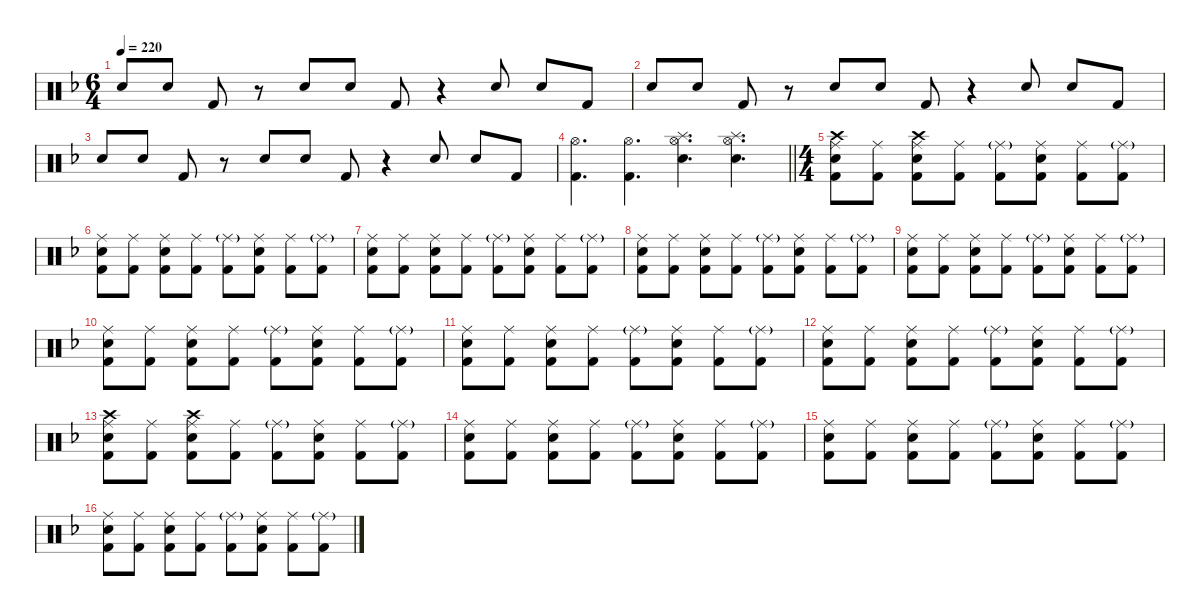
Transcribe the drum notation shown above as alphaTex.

\hideDynamics
\bracketExtendMode nobrackets
\singleTrackTrackNamePolicy hidden
\multiTrackTrackNamePolicy hidden
\firstSystemTrackNameMode fullname
\firstSystemTrackNameOrientation horizontal
\otherSystemsTrackNameOrientation horizontal
\track ("Drumkit" "Drums") {instrument percussion}
\staff {score}
\articulation defaults
\ts (6 4)
\tempo 220
\clef neutral
\ks dminor "Snare (hit) 2"{acc forcenatural}.8{dy ff beam Up} "Snare (hit) 2"{acc forcenatural}.8{beam Up} "Kick (hit) 2"{acc forcenatural}.8{beam Up}
r.8{beam Up} "Snare (hit) 2"{acc forcenatural}.8{beam Up} "Snare (hit) 2"{acc forcenatural}.8{beam Up} "Kick (hit) 2"{acc forcenatural}.8{beam Up} r.4{beam Up} "Snare (hit) 2"{acc forcenatural}.8{beam Up} "Snare (hit) 2"{acc forcenatural}.8{beam Up} "Kick (hit) 2"{acc forcenatural}.8{beam Up} |
"Snare (hit) 2"{acc forcenatural}.8{beam Up} "Snare (hit) 2"{acc forcenatural}.8{beam Up} "Kick (hit) 2"{acc forcenatural}.8{beam Up} r.8{beam Up} "Snare (hit) 2"{acc forcenatural}.8{beam Up} "Snare (hit) 2"{acc forcenatural}.8{beam Up} "Kick (hit) 2"{acc forcenatural}.8{beam Up} r.4{beam Up} "Snare (hit) 2"{acc forcenatural}.8{beam Up} "Snare (hit) 2"{acc forcenatural}.8{beam Up} "Kick (hit) 2"{acc forcenatural}.8{beam Up} |
"Snare (hit) 2"{acc forcenatural}.8{beam Up} "Snare (hit) 2"{acc forcenatural}.8{beam Up} "Kick (hit) 2"{acc forcenatural}.8{beam Up} r.8{beam Up} "Snare (hit) 2"{acc forcenatural}.8{beam Up} "Snare (hit) 2"{acc forcenatural}.8{beam Up} "Kick (hit) 2"{acc forcenatural}.8{beam Up} r.4{beam Up} "Snare (hit) 2"{acc forcenatural}.8{beam Up} "Snare (hit) 2"{acc forcenatural}.8{beam Up} "Kick (hit) 2"{acc forcenatural}.8{beam Up} |
\barLineRight lightlight
("Hi-Hat (open)"{acc forcenatural} "Kick (hit) 2"{acc forcenatural}).4{d dy mp beam Down} ("Hi-Hat (open)"{acc forcenatural} "Kick (hit) 2"{acc forcenatural}).4{d beam Down} ("Splash (hit)"{acc forcenatural} "Hi-Hat (open)"{acc forcenatural} "Snare (hit) 2"{acc forcenatural}).4{d dy f beam Down} ("Splash (hit)"{acc forcenatural} "Hi-Hat (open)"{acc forcenatural} "Snare (hit) 2"{acc forcenatural}).4{d beam Down} |
\ts (4 4)
("Crash high (hit)"{acc forcenatural} "Ride (middle)"{acc forcenatural} "Snare (hit) 2"{acc forcenatural} "Kick (hit) 2"{acc forcenatural}).8{beam Down} ("Ride (middle)"{acc forcenatural} "Kick (hit) 2"{acc forcenatural}).8{dy mf beam Down} ("Crash high (hit)"{acc forcenatural} "Ride (middle)"{acc forcenatural} "Snare (hit) 2"{acc forcenatural} "Kick (hit) 2"{acc forcenatural}).8{dy f beam Down} ("Ride (middle)"{acc forcenatural} "Kick (hit) 2"{acc forcenatural}).8{dy mf beam Down} ("Ride (middle)"{g acc forcenatural} "Kick (hit) 2"{acc forcenatural}).8{dy f beam Down} ("Ride (middle)"{acc forcenatural} "Snare (hit) 2"{acc forcenatural} "Kick (hit) 2"{acc forcenatural}).8{dy mf beam Down} ("Ride (middle)"{acc forcenatural} "Kick (hit) 2"{acc forcenatural}).8{beam Down} ("Ride (middle)"{g acc forcenatural} "Kick (hit) 2"{acc forcenatural}).8{dy f beam Down} |
("Ride (middle)"{acc forcenatural} "Snare (hit) 2"{acc forcenatural} "Kick (hit) 2"{acc forcenatural}).8{dy mf beam Down} ("Ride (middle)"{acc forcenatural} "Kick (hit) 2"{acc forcenatural}).8{beam Down} ("Ride (middle)"{acc forcenatural} "Snare (hit) 2"{acc forcenatural} "Kick (hit) 2"{acc forcenatural}).8{beam Down} ("Ride (middle)"{acc forcenatural} "Kick (hit) 2"{acc forcenatural}).8{beam Down} ("Ride (middle)"{g acc forcenatural} "Kick (hit) 2"{acc forcenatural}).8{dy f beam Down} ("Ride (middle)"{acc forcenatural} "Snare (hit) 2"{acc forcenatural} "Kick (hit) 2"{acc forcenatural}).8{dy mf beam Down} ("Ride (middle)"{acc forcenatural} "Kick (hit) 2"{acc forcenatural}).8{beam Down} ("Ride (middle)"{g acc forcenatural} "Kick (hit) 2"{acc forcenatural}).8{dy f beam Down} |
("Ride (middle)"{acc forcenatural} "Snare (hit) 2"{acc forcenatural} "Kick (hit) 2"{acc forcenatural}).8{dy mf beam Down} ("Ride (middle)"{acc forcenatural} "Kick (hit) 2"{acc forcenatural}).8{beam Down} ("Ride (middle)"{acc forcenatural} "Snare (hit) 2"{acc forcenatural} "Kick (hit) 2"{acc forcenatural}).8{beam Down} ("Ride (middle)"{acc forcenatural} "Kick (hit) 2"{acc forcenatural}).8{beam Down} ("Ride (middle)"{g acc forcenatural} "Kick (hit) 2"{acc forcenatural}).8{dy f beam Down} ("Ride (middle)"{acc forcenatural} "Snare (hit) 2"{acc forcenatural} "Kick (hit) 2"{acc forcenatural}).8{dy mf beam Down} ("Ride (middle)"{acc forcenatural} "Kick (hit) 2"{acc forcenatural}).8{beam Down} ("Ride (middle)"{g acc forcenatural} "Kick (hit) 2"{acc forcenatural}).8{dy f beam Down} |
("Ride (middle)"{acc forcenatural} "Snare (hit) 2"{acc forcenatural} "Kick (hit) 2"{acc forcenatural}).8{dy mf beam Down} ("Ride (middle)"{acc forcenatural} "Kick (hit) 2"{acc forcenatural}).8{beam Down} ("Ride (middle)"{acc forcenatural} "Snare (hit) 2"{acc forcenatural} "Kick (hit) 2"{acc forcenatural}).8{beam Down} ("Ride (middle)"{acc forcenatural} "Kick (hit) 2"{acc forcenatural}).8{beam Down} ("Ride (middle)"{g acc forcenatural} "Kick (hit) 2"{acc forcenatural}).8{dy f beam Down} ("Ride (middle)"{acc forcenatural} "Snare (hit) 2"{acc forcenatural} "Kick (hit) 2"{acc forcenatural}).8{dy mf beam Down} ("Ride (middle)"{acc forcenatural} "Kick (hit) 2"{acc forcenatural}).8{beam Down} ("Ride (middle)"{g acc forcenatural} "Kick (hit) 2"{acc forcenatural}).8{dy f beam Down} |
("Ride (middle)"{acc forcenatural} "Snare (hit) 2"{acc forcenatural} "Kick (hit) 2"{acc forcenatural}).8{dy mf beam Down} ("Ride (middle)"{acc forcenatural} "Kick (hit) 2"{acc forcenatural}).8{beam Down} ("Ride (middle)"{acc forcenatural} "Snare (hit) 2"{acc forcenatural} "Kick (hit) 2"{acc forcenatural}).8{beam Down} ("Ride (middle)"{acc forcenatural} "Kick (hit) 2"{acc forcenatural}).8{beam Down} ("Ride (middle)"{g acc forcenatural} "Kick (hit) 2"{acc forcenatural}).8{dy f beam Down} ("Ride (middle)"{acc forcenatural} "Snare (hit) 2"{acc forcenatural} "Kick (hit) 2"{acc forcenatural}).8{dy mf beam Down} ("Ride (middle)"{acc forcenatural} "Kick (hit) 2"{acc forcenatural}).8{beam Down} ("Ride (middle)"{g acc forcenatural} "Kick (hit) 2"{acc forcenatural}).8{dy f beam Down} |
("Ride (middle)"{acc forcenatural} "Snare (hit) 2"{acc forcenatural} "Kick (hit) 2"{acc forcenatural}).8{dy mf beam Down} ("Ride (middle)"{acc forcenatural} "Kick (hit) 2"{acc forcenatural}).8{beam Down} ("Ride (middle)"{acc forcenatural} "Snare (hit) 2"{acc forcenatural} "Kick (hit) 2"{acc forcenatural}).8{beam Down} ("Ride (middle)"{acc forcenatural} "Kick (hit) 2"{acc forcenatural}).8{beam Down} ("Ride (middle)"{g acc forcenatural} "Kick (hit) 2"{acc forcenatural}).8{dy f beam Down} ("Ride (middle)"{acc forcenatural} "Snare (hit) 2"{acc forcenatural} "Kick (hit) 2"{acc forcenatural}).8{dy mf beam Down} ("Ride (middle)"{acc forcenatural} "Kick (hit) 2"{acc forcenatural}).8{beam Down} ("Ride (middle)"{g acc forcenatural} "Kick (hit) 2"{acc forcenatural}).8{dy f beam Down} |
("Ride (middle)"{acc forcenatural} "Snare (hit) 2"{acc forcenatural} "Kick (hit) 2"{acc forcenatural}).8{dy mf beam Down} ("Ride (middle)"{acc forcenatural} "Kick (hit) 2"{acc forcenatural}).8{beam Down} ("Ride (middle)"{acc forcenatural} "Snare (hit) 2"{acc forcenatural} "Kick (hit) 2"{acc forcenatural}).8{beam Down} ("Ride (middle)"{acc forcenatural} "Kick (hit) 2"{acc forcenatural}).8{beam Down} ("Ride (middle)"{g acc forcenatural} "Kick (hit) 2"{acc forcenatural}).8{dy f beam Down} ("Ride (middle)"{acc forcenatural} "Snare (hit) 2"{acc forcenatural} "Kick (hit) 2"{acc forcenatural}).8{dy mf beam Down} ("Ride (middle)"{acc forcenatural} "Kick (hit) 2"{acc forcenatural}).8{beam Down} ("Ride (middle)"{g acc forcenatural} "Kick (hit) 2"{acc forcenatural}).8{dy f beam Down} |
("Ride (middle)"{acc forcenatural} "Snare (hit) 2"{acc forcenatural} "Kick (hit) 2"{acc forcenatural}).8{dy mf beam Down} ("Ride (middle)"{acc forcenatural} "Kick (hit) 2"{acc forcenatural}).8{beam Down} ("Ride (middle)"{acc forcenatural} "Snare (hit) 2"{acc forcenatural} "Kick (hit) 2"{acc forcenatural}).8{beam Down} ("Ride (middle)"{acc forcenatural} "Kick (hit) 2"{acc forcenatural}).8{beam Down} ("Ride (middle)"{g acc forcenatural} "Kick (hit) 2"{acc forcenatural}).8{dy f beam Down} ("Ride (middle)"{acc forcenatural} "Snare (hit) 2"{acc forcenatural} "Kick (hit) 2"{acc forcenatural}).8{dy mf beam Down} ("Ride (middle)"{acc forcenatural} "Kick (hit) 2"{acc forcenatural}).8{beam Down} ("Ride (middle)"{g acc forcenatural} "Kick (hit) 2"{acc forcenatural}).8{dy f beam Down} |
("Crash high (hit)"{acc forcenatural} "Ride (middle)"{acc forcenatural} "Snare (hit) 2"{acc forcenatural} "Kick (hit) 2"{acc forcenatural}).8{beam Down} ("Ride (middle)"{acc forcenatural} "Kick (hit) 2"{acc forcenatural}).8{dy mf beam Down} ("Crash high (hit)"{acc forcenatural} "Ride (middle)"{acc forcenatural} "Snare (hit) 2"{acc forcenatural} "Kick (hit) 2"{acc forcenatural}).8{dy f beam Down} ("Ride (middle)"{acc forcenatural} "Kick (hit) 2"{acc forcenatural}).8{dy mf beam Down} ("Ride (middle)"{g acc forcenatural} "Kick (hit) 2"{acc forcenatural}).8{dy f beam Down} ("Ride (middle)"{acc forcenatural} "Snare (hit) 2"{acc forcenatural} "Kick (hit) 2"{acc forcenatural}).8{dy mf beam Down} ("Ride (middle)"{acc forcenatural} "Kick (hit) 2"{acc forcenatural}).8{beam Down} ("Ride (middle)"{g acc forcenatural} "Kick (hit) 2"{acc forcenatural}).8{dy f beam Down} |
("Ride (middle)"{acc forcenatural} "Snare (hit) 2"{acc forcenatural} "Kick (hit) 2"{acc forcenatural}).8{dy mf beam Down} ("Ride (middle)"{acc forcenatural} "Kick (hit) 2"{acc forcenatural}).8{beam Down} ("Ride (middle)"{acc forcenatural} "Snare (hit) 2"{acc forcenatural} "Kick (hit) 2"{acc forcenatural}).8{beam Down} ("Ride (middle)"{acc forcenatural} "Kick (hit) 2"{acc forcenatural}).8{beam Down} ("Ride (middle)"{g acc forcenatural} "Kick (hit) 2"{acc forcenatural}).8{dy f beam Down} ("Ride (middle)"{acc forcenatural} "Snare (hit) 2"{acc forcenatural} "Kick (hit) 2"{acc forcenatural}).8{dy mf beam Down} ("Ride (middle)"{acc forcenatural} "Kick (hit) 2"{acc forcenatural}).8{beam Down} ("Ride (middle)"{g acc forcenatural} "Kick (hit) 2"{acc forcenatural}).8{dy f beam Down} |
("Ride (middle)"{acc forcenatural} "Snare (hit) 2"{acc forcenatural} "Kick (hit) 2"{acc forcenatural}).8{dy mf beam Down} ("Ride (middle)"{acc forcenatural} "Kick (hit) 2"{acc forcenatural}).8{beam Down} ("Ride (middle)"{acc forcenatural} "Snare (hit) 2"{acc forcenatural} "Kick (hit) 2"{acc forcenatural}).8{beam Down} ("Ride (middle)"{acc forcenatural} "Kick (hit) 2"{acc forcenatural}).8{beam Down} ("Ride (middle)"{g acc forcenatural} "Kick (hit) 2"{acc forcenatural}).8{dy f beam Down} ("Ride (middle)"{acc forcenatural} "Snare (hit) 2"{acc forcenatural} "Kick (hit) 2"{acc forcenatural}).8{dy mf beam Down} ("Ride (middle)"{acc forcenatural} "Kick (hit) 2"{acc forcenatural}).8{beam Down} ("Ride (middle)"{g acc forcenatural} "Kick (hit) 2"{acc forcenatural}).8{dy f beam Down} |
("Ride (middle)"{acc forcenatural} "Snare (hit) 2"{acc forcenatural} "Kick (hit) 2"{acc forcenatural}).8{dy mf beam Down} ("Ride (middle)"{acc forcenatural} "Kick (hit) 2"{acc forcenatural}).8{beam Down} ("Ride (middle)"{acc forcenatural} "Snare (hit) 2"{acc forcenatural} "Kick (hit) 2"{acc forcenatural}).8{beam Down} ("Ride (middle)"{acc forcenatural} "Kick (hit) 2"{acc forcenatural}).8{beam Down} ("Ride (middle)"{g acc forcenatural} "Kick (hit) 2"{acc forcenatural}).8{dy f beam Down} ("Ride (middle)"{acc forcenatural} "Snare (hit) 2"{acc forcenatural} "Kick (hit) 2"{acc forcenatural}).8{dy mf beam Down} ("Ride (middle)"{acc forcenatural} "Kick (hit) 2"{acc forcenatural}).8{beam Down} ("Ride (middle)"{g acc forcenatural} "Kick (hit) 2"{acc forcenatural}).8{dy f beam Down}
